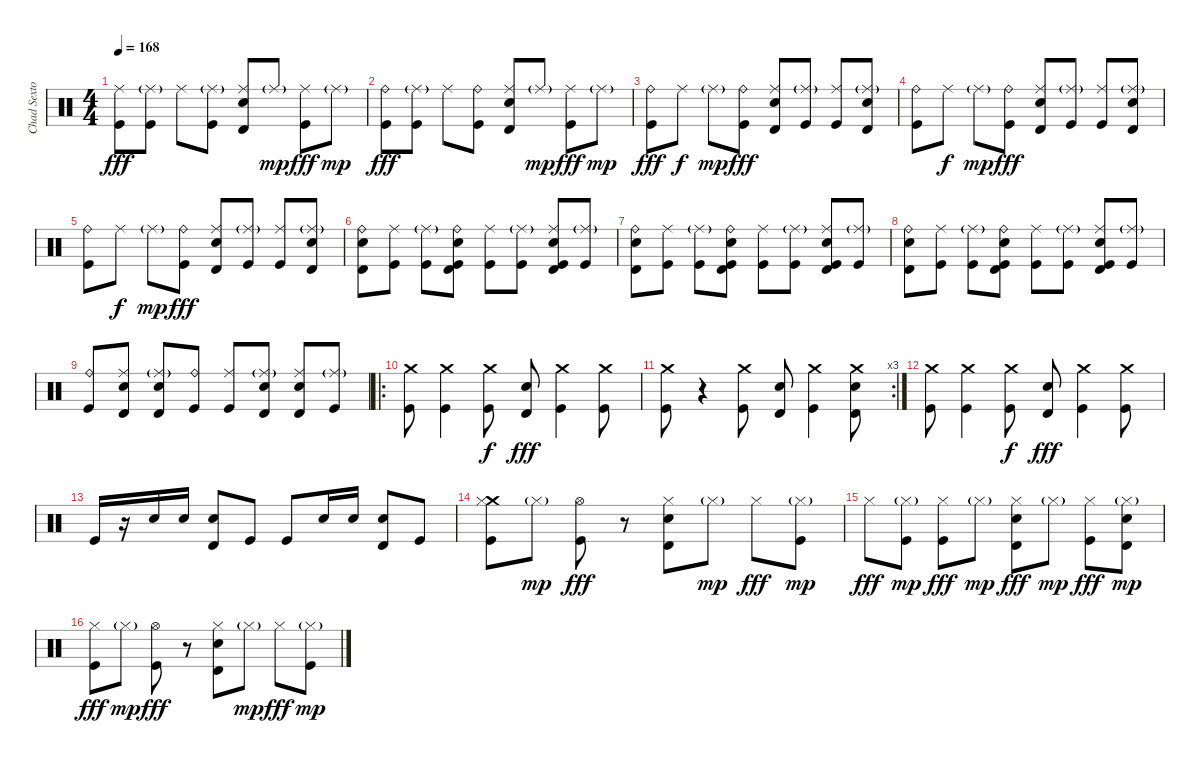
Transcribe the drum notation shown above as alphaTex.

\track ("Chad Sexton" "Chad Sexto") {instrument percussion}
\staff {score}
\articulation defaults
\ts (4 4)
\tempo 168
\clef neutral
\ks c
("Ride (middle)" "Kick (hit)").8{dy fff} ("Ride (middle)"{g} "Kick (hit)").8 "Ride (middle)".8 ("Ride (middle)"{g} "Kick (hit)").8 ("Ride (middle)" "Electric Snare (hit)" "Timbale high (hit)").8 "Ride (middle)"{g}.8{dy mp} ("Ride (middle)" "Kick (hit)").8{dy fff} "Ride (middle)"{g}.8{dy mp} |
("Ride (bell)" "Kick (hit)").8{dy fff} ("Ride (middle)"{g} "Kick (hit)").8 "Ride (middle)".8 ("Ride (bell)" "Kick (hit)").8 ("Ride (middle)" "Electric Snare (hit)" "Timbale high (hit)").8 "Ride (middle)"{g}.8{dy mp} ("Ride (middle)" "Kick (hit)").8{dy fff} "Ride (middle)"{g}.8{dy mp} |
("Ride (bell)" "Kick (hit)").8{dy fff} "Ride (middle)".8{dy f} "Ride (middle)"{g}.8{dy mp} ("Ride (bell)" "Kick (hit)").8{dy fff} ("Ride (middle)" "Electric Snare (hit)" "Timbale high (hit)").8 ("Ride (middle)"{g} "Kick (hit)").8 ("Ride (middle)" "Kick (hit)").8 ("Ride (middle)"{g} "Electric Snare (hit)" "Timbale high (hit)").8 |
("Ride (bell)" "Kick (hit)").8 "Ride (middle)".8{dy f} "Ride (middle)"{g}.8{dy mp} ("Ride (bell)" "Kick (hit)").8{dy fff} ("Ride (middle)" "Electric Snare (hit)" "Timbale high (hit)").8 ("Ride (middle)"{g} "Kick (hit)").8 ("Ride (middle)" "Kick (hit)").8 ("Ride (middle)"{g} "Electric Snare (hit)" "Timbale high (hit)").8 |
("Ride (bell)" "Kick (hit)").8 "Ride (middle)".8{dy f} "Ride (middle)"{g}.8{dy mp} ("Ride (bell)" "Kick (hit)").8{dy fff} ("Ride (middle)" "Electric Snare (hit)" "Timbale high (hit)").8 ("Ride (middle)"{g} "Kick (hit)").8 ("Ride (middle)" "Kick (hit)").8 ("Ride (middle)"{g} "Electric Snare (hit)" "Timbale high (hit)").8 |
("Ride (bell)" "Electric Snare (hit)" "Timbale high (hit)").8 ("Ride (middle)" "Kick (hit)").8 ("Ride (middle)"{g} "Kick (hit)").8 ("Timbale high (hit)" "Ride (bell)" "Electric Snare (hit)" "Kick (hit)").8 ("Ride (middle)" "Kick (hit)").8 ("Ride (middle)"{g} "Kick (hit)").8 ("Timbale high (hit)" "Ride (middle)" "Electric Snare (hit)" "Kick (hit)").8 ("Ride (middle)"{g} "Kick (hit)").8 |
("Ride (bell)" "Electric Snare (hit)" "Timbale high (hit)").8 ("Ride (middle)" "Kick (hit)").8 ("Ride (middle)"{g} "Kick (hit)").8 ("Timbale high (hit)" "Ride (bell)" "Electric Snare (hit)" "Kick (hit)").8 ("Ride (middle)" "Kick (hit)").8 ("Ride (middle)"{g} "Kick (hit)").8 ("Timbale high (hit)" "Ride (middle)" "Electric Snare (hit)" "Kick (hit)").8 ("Ride (middle)"{g} "Kick (hit)").8 |
("Ride (bell)" "Electric Snare (hit)" "Timbale high (hit)").8 ("Ride (middle)" "Kick (hit)").8 ("Ride (middle)"{g} "Kick (hit)").8 ("Timbale high (hit)" "Ride (bell)" "Electric Snare (hit)" "Kick (hit)").8 ("Ride (middle)" "Kick (hit)").8 ("Ride (middle)"{g} "Kick (hit)").8 ("Timbale high (hit)" "Ride (middle)" "Electric Snare (hit)" "Kick (hit)").8 ("Ride (middle)"{g} "Kick (hit)").8 |
("Ride (bell)" "Kick (hit)").8 ("Ride (middle)" "Electric Snare (hit)" "Timbale high (hit)").8 ("Ride (middle)"{g} "Electric Snare (hit)" "Timbale high (hit)").8 ("Ride (bell)" "Kick (hit)").8 ("Ride (middle)" "Kick (hit)").8 ("Ride (middle)"{g} "Electric Snare (hit)" "Timbale high (hit)").8 ("Ride (middle)" "Electric Snare (hit)" "Timbale high (hit)").8 ("Ride (middle)"{g} "Kick (hit)").8 |
\ro
("Crash medium (hit)" "Kick (hit)").8 ("Crash medium (hit)" "Kick (hit)").4 ("Crash medium (hit)" "Kick (hit)").8{dy f} ("Electric Snare (hit)" "Timbale high (hit)").8{dy fff} ("Crash medium (hit)" "Kick (hit)").4 ("Crash medium (hit)" "Kick (hit)").8 |
\rc 3
("Crash medium (hit)" "Kick (hit)").8 r.4 ("Crash medium (hit)" "Kick (hit)").8 ("Electric Snare (hit)" "Timbale high (hit)").8 ("Crash medium (hit)" "Kick (hit)").4 ("Crash medium (hit)" "Electric Snare (hit)" "Timbale high (hit)").8 |
("Crash medium (hit)" "Kick (hit)").8 ("Crash medium (hit)" "Kick (hit)").4 ("Crash medium (hit)" "Kick (hit)").8{dy f} ("Electric Snare (hit)" "Timbale high (hit)").8{dy fff} ("Crash medium (hit)" "Kick (hit)").4 ("Crash medium (hit)" "Kick (hit)").8 |
"Kick (hit)".16 r.16 "Electric Snare (hit)".16 "Electric Snare (hit)".16 ("Electric Snare (hit)" "Timbale high (hit)").8 "Kick (hit)".8 "Kick (hit)".8 "Electric Snare (hit)".16 "Electric Snare (hit)".16 ("Electric Snare (hit)" "Timbale high (hit)").8 "Kick (hit)".8 |
("Crash medium (hit)" "Kick (hit)" "Hi-Hat (closed)").8 "Hi-Hat (closed)"{g}.8{dy mp} ("Kick (hit)" "Hi-Hat (open)").8{dy fff} r.8 ("Electric Snare (hit)" "Timbale high (hit)" "Hi-Hat (closed)").8 "Hi-Hat (closed)"{g}.8{dy mp} "Hi-Hat (closed)".8{dy fff} ("Kick (hit)" "Hi-Hat (closed)"{g}).8{dy mp} |
"Hi-Hat (closed)".8{dy fff} ("Kick (hit)" "Hi-Hat (closed)"{g}).8{dy mp} ("Kick (hit)" "Hi-Hat (closed)").8{dy fff} "Hi-Hat (closed)"{g}.8{dy mp} ("Electric Snare (hit)" "Timbale high (hit)" "Hi-Hat (closed)").8{dy fff} "Hi-Hat (closed)"{g}.8{dy mp} ("Kick (hit)" "Hi-Hat (closed)").8{dy fff} ("Electric Snare (hit)" "Timbale high (hit)" "Hi-Hat (closed)"{g}).8{dy mp} |
("Kick (hit)" "Hi-Hat (closed)").8{dy fff} "Hi-Hat (closed)"{g}.8{dy mp} ("Kick (hit)" "Hi-Hat (open)").8{dy fff} r.8 ("Electric Snare (hit)" "Timbale high (hit)" "Hi-Hat (closed)").8 "Hi-Hat (closed)"{g}.8{dy mp} "Hi-Hat (closed)".8{dy fff} ("Kick (hit)" "Hi-Hat (closed)"{g}).8{dy mp}
